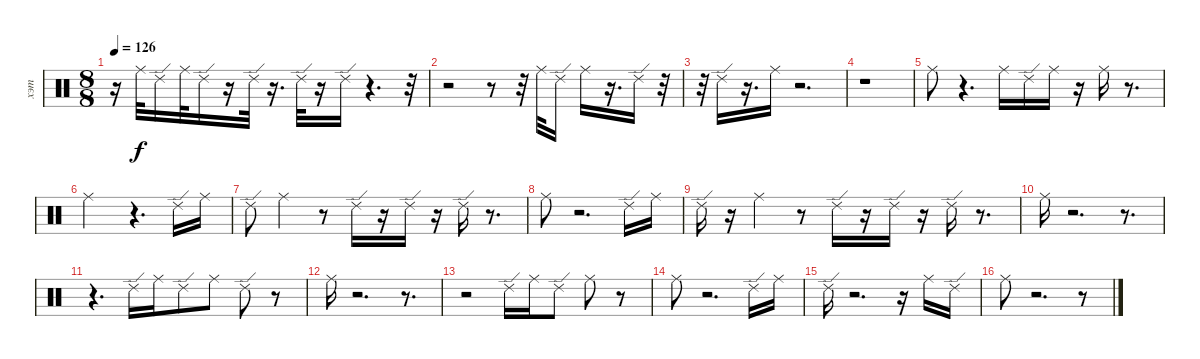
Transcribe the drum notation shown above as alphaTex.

\track ("хэт" "хэт") {instrument percussion}
\staff {score}
\articulation defaults
\ts (8 8)
\tempo 126
\clef neutral
\ks c
r.16{dy f} "Ride (middle)".32 "Ride (edge) 2".16 "Ride (middle)".32 "Ride (edge) 2".16 r.16 "Ride (edge) 2".32 r.16{d} "Ride (edge) 2".32 r.16 "Ride (edge) 2".16 r.4{d} r.32 |
r.2 r.8 r.32 "Ride (middle)".32 "Ride (edge) 2".16 "Ride (middle)".16 r.16{d} "Ride (edge) 2".16 r.32 |
r.32 "Ride (edge) 2".16 r.16{d} "Ride (middle)".16 r.2{d} |
r.1 |
"Ride (middle)".8 r.4{d} "Ride (middle)".16 "Ride (edge) 2".16 "Ride (middle)".16 r.16 "Ride (middle)".16 r.8{d} |
"Ride (middle)".2 r.4{d} "Ride (edge) 2".16 "Ride (middle)".16 |
"Ride (edge) 2".8 "Ride (middle)".4 r.8 "Ride (edge) 2".16 r.16 "Ride (edge) 2".16 r.16 "Ride (edge) 2".16 r.8{d} |
"Ride (middle)".8 r.2{d} "Ride (edge) 2".16 "Ride (middle)".16 |
"Ride (edge) 2".16 r.16 "Ride (middle)".4 r.8 "Ride (edge) 2".16 r.16 "Ride (edge) 2".16 r.16 "Ride (edge) 2".16 r.8{d} |
"Ride (middle)".16 r.2{d} r.8{d} |
r.4{d} "Ride (edge) 2".16 "Ride (middle)".16 "Ride (edge) 2".8 "Ride (middle)".8 "Ride (edge) 2".8 r.8 |
"Ride (middle)".16 r.2{d} r.8{d} |
r.2 "Ride (edge) 2".16 "Ride (middle)".16 "Ride (edge) 2".8 "Ride (middle)".8 r.8 |
"Ride (middle)".8 r.2{d} "Ride (edge) 2".16 "Ride (middle)".16 |
"Ride (edge) 2".16 r.2{d} r.16 "Ride (middle)".16 "Ride (edge) 2".16 |
"Ride (middle)".8 r.2{d} r.8
